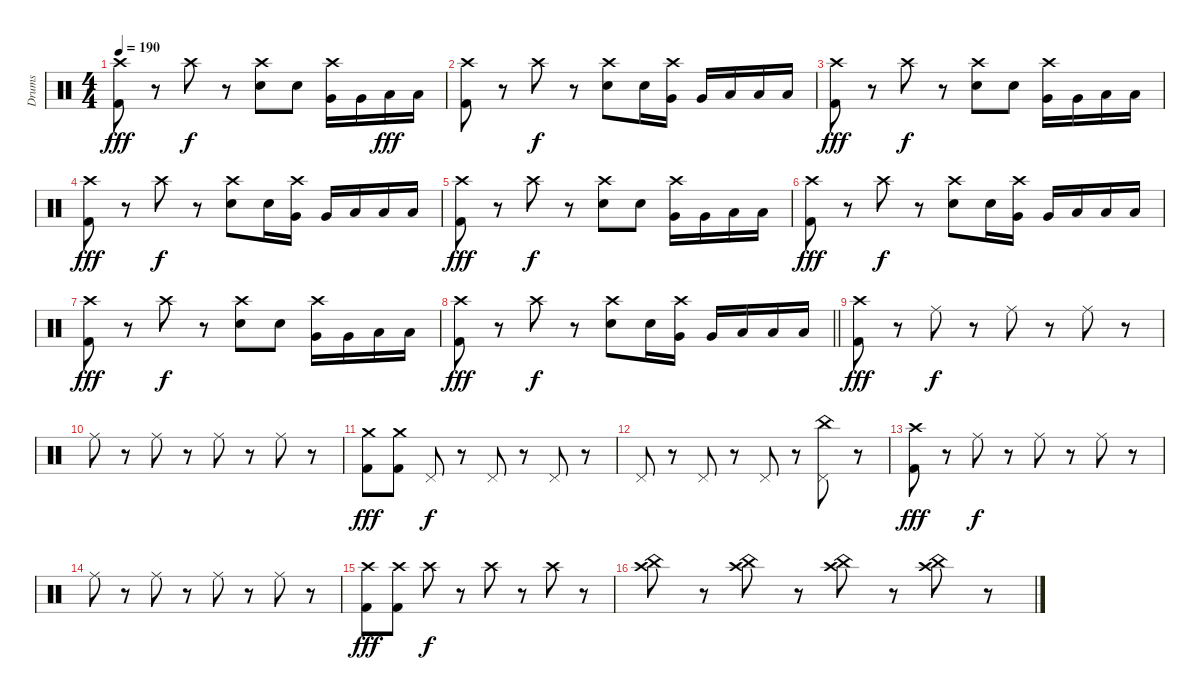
\track ("Drums" "Drums") {instrument percussion}
\staff {score}
\articulation defaults
\ts (4 4)
\tempo 190
\clef neutral
\ks c
("Crash high (hit)" "Kick (hit) 2").8{dy fff} r.8 "Crash high (hit)".8{dy f} r.8 ("Crash high (hit)" "Electric Snare (hit)").8 "Electric Snare (hit)".8 ("Crash high (hit)" "Very Low Tom (hit)").16 "Very Low Tom (hit)".16 "Low Floor Tom (hit)".16{dy fff} "Low Floor Tom (hit)".16 |
("Crash high (hit)" "Kick (hit) 2").8 r.8 "Crash high (hit)".8{dy f} r.8 ("Crash high (hit)" "Electric Snare (hit)").8 "Electric Snare (hit)".16 ("Crash high (hit)" "Very Low Tom (hit)").16 "Very Low Tom (hit)".16 "Low Floor Tom (hit)".16 "Low Floor Tom (hit)".16 "Low Floor Tom (hit)".16 |
("Crash high (hit)" "Kick (hit) 2").8{dy fff} r.8 "Crash high (hit)".8{dy f} r.8 ("Crash high (hit)" "Electric Snare (hit)").8 "Electric Snare (hit)".8 ("Crash high (hit)" "Very Low Tom (hit)").16 "Very Low Tom (hit)".16 "Low Floor Tom (hit)".16 "Low Floor Tom (hit)".16 |
("Crash high (hit)" "Kick (hit) 2").8{dy fff} r.8 "Crash high (hit)".8{dy f} r.8 ("Crash high (hit)" "Electric Snare (hit)").8 "Electric Snare (hit)".16 ("Crash high (hit)" "Very Low Tom (hit)").16 "Very Low Tom (hit)".16 "Low Floor Tom (hit)".16 "Low Floor Tom (hit)".16 "Low Floor Tom (hit)".16 |
("Crash high (hit)" "Kick (hit) 2").8{dy fff} r.8 "Crash high (hit)".8{dy f} r.8 ("Crash high (hit)" "Electric Snare (hit)").8 "Electric Snare (hit)".8 ("Crash high (hit)" "Very Low Tom (hit)").16 "Very Low Tom (hit)".16 "Low Floor Tom (hit)".16 "Low Floor Tom (hit)".16 |
("Crash high (hit)" "Kick (hit) 2").8{dy fff} r.8 "Crash high (hit)".8{dy f} r.8 ("Crash high (hit)" "Electric Snare (hit)").8 "Electric Snare (hit)".16 ("Crash high (hit)" "Very Low Tom (hit)").16 "Very Low Tom (hit)".16 "Low Floor Tom (hit)".16 "Low Floor Tom (hit)".16 "Low Floor Tom (hit)".16 |
("Crash high (hit)" "Kick (hit) 2").8{dy fff} r.8 "Crash high (hit)".8{dy f} r.8 ("Crash high (hit)" "Electric Snare (hit)").8 "Electric Snare (hit)".8 ("Crash high (hit)" "Very Low Tom (hit)").16 "Very Low Tom (hit)".16 "Low Floor Tom (hit)".16 "Low Floor Tom (hit)".16 |
\barLineRight lightlight
("Crash high (hit)" "Kick (hit) 2").8{dy fff} r.8 "Crash high (hit)".8{dy f} r.8 ("Crash high (hit)" "Electric Snare (hit)").8 "Electric Snare (hit)".16 ("Crash high (hit)" "Very Low Tom (hit)").16 "Very Low Tom (hit)".16 "Low Floor Tom (hit)".16 "Low Floor Tom (hit)".16 "Low Floor Tom (hit)".16 |
\section ("" "")
("Crash high (hit)" "Kick (hit) 2").8{dy fff} r.8 "Ride (middle)".8{dy f} r.8 "Ride (middle)".8 r.8 "Ride (middle)".8 r.8 |
"Ride (middle)".8 r.8 "Ride (middle)".8 r.8 "Ride (middle)".8 r.8 "Ride (middle)".8 r.8 |
("Crash medium (hit)" "Kick (hit) 2").8{dy fff} ("Crash medium (hit)" "Kick (hit) 2").8 "Pedal Hi-Hat (hit)".8{dy f} r.8 "Pedal Hi-Hat (hit)".8 r.8 "Pedal Hi-Hat (hit)".8 r.8 |
"Pedal Hi-Hat (hit)".8 r.8 "Pedal Hi-Hat (hit)".8 r.8 "Pedal Hi-Hat (hit)".8 r.8 ("China (hit)" "Pedal Hi-Hat (hit)").8 r.8 |
("Crash high (hit)" "Kick (hit) 2").8{dy fff} r.8 "Ride (middle)".8{dy f} r.8 "Ride (middle)".8 r.8 "Ride (middle)".8 r.8 |
"Ride (middle)".8 r.8 "Ride (middle)".8 r.8 "Ride (middle)".8 r.8 "Ride (middle)".8 r.8 |
("Crash high (hit)" "Kick (hit) 2").8{dy fff} ("Crash high (hit)" "Kick (hit) 2").8 "Crash high (hit)".8{dy f} r.8 "Crash high (hit)".8 r.8 "Crash high (hit)".8 r.8 |
("Crash high (hit)" "China (hit)").8 r.8 ("Crash high (hit)" "China (hit)").8 r.8 ("Crash high (hit)" "China (hit)").8 r.8 ("Crash high (hit)" "China (hit)").8 r.8
